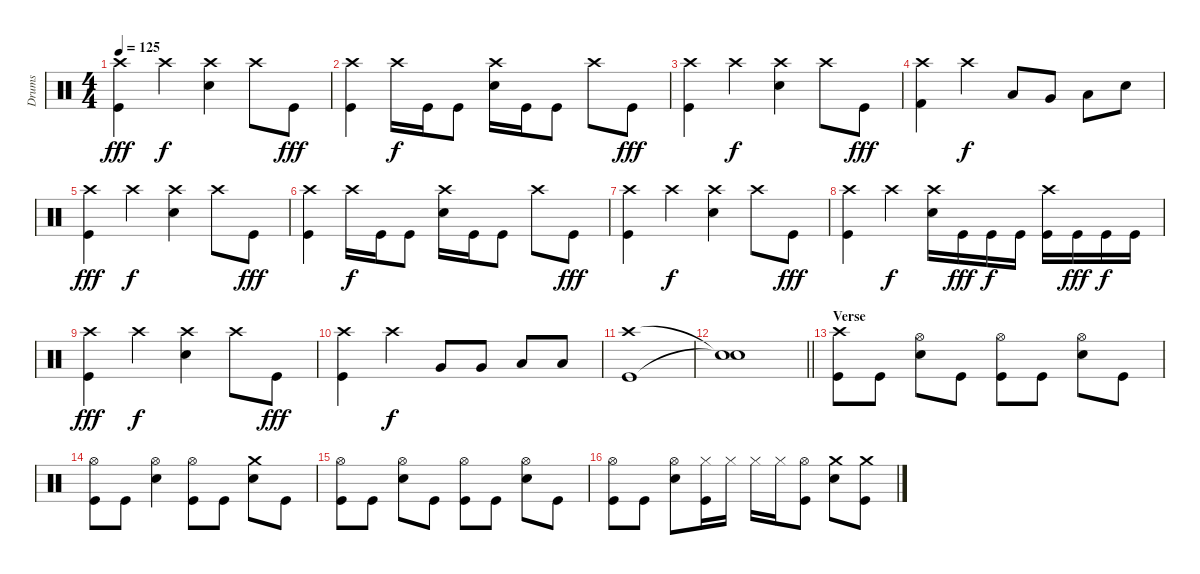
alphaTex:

\track ("Drums" "Drums") {instrument percussion}
\staff {score}
\articulation defaults
\ts (4 4)
\tempo 125
\clef neutral
\ks c
("Crash high (hit)" "Kick (hit)").4{dy fff} "Crash high (hit)".4{dy f} ("Crash high (hit)" "Electric Snare (hit)").4 "Crash high (hit)".8 "Kick (hit)".8{dy fff} |
("Crash high (hit)" "Kick (hit)").4 "Crash high (hit)".16{dy f} "Kick (hit)".16 "Kick (hit)".8 ("Crash high (hit)" "Electric Snare (hit)").16 "Kick (hit)".16 "Kick (hit)".8 "Crash high (hit)".8 "Kick (hit)".8{dy fff} |
("Crash high (hit)" "Kick (hit)").4 "Crash high (hit)".4{dy f} ("Crash high (hit)" "Electric Snare (hit)").4 "Crash high (hit)".8 "Kick (hit)".8{dy fff} |
("Crash high (hit)" "Kick (hit) 2").4 "Crash high (hit)".4{dy f} "Low Tom (hit)".8 "Very Low Tom (hit)".8 "Low Floor Tom (hit)".8 "Snare (hit)".8 |
("Crash high (hit)" "Kick (hit)").4{dy fff} "Crash high (hit)".4{dy f} ("Crash high (hit)" "Electric Snare (hit)").4 "Crash high (hit)".8 "Kick (hit)".8{dy fff} |
("Crash high (hit)" "Kick (hit)").4 "Crash high (hit)".16{dy f} "Kick (hit)".16 "Kick (hit)".8 ("Crash high (hit)" "Electric Snare (hit)").16 "Kick (hit)".16 "Kick (hit)".8 "Crash high (hit)".8 "Kick (hit)".8{dy fff} |
("Crash high (hit)" "Kick (hit)").4 "Crash high (hit)".4{dy f} ("Crash high (hit)" "Electric Snare (hit)").4 "Crash high (hit)".8 "Kick (hit)".8{dy fff} |
("Crash high (hit)" "Kick (hit)").4 "Crash high (hit)".4{dy f} ("Crash high (hit)" "Electric Snare (hit)").16 "Kick (hit)".16{dy fff} "Kick (hit)".16{dy f} "Kick (hit)".16 ("Crash high (hit)" "Kick (hit)").16 "Kick (hit)".16{dy fff} "Kick (hit)".16{dy f} "Kick (hit)".16 |
("Crash high (hit)" "Kick (hit)").4{dy fff} "Crash high (hit)".4{dy f} ("Crash high (hit)" "Electric Snare (hit)").4 "Crash high (hit)".8 "Kick (hit)".8{dy fff} |
("Crash high (hit)" "Kick (hit)").4 "Crash high (hit)".4{dy f} "Very Low Tom (hit)".8 "Very Low Tom (hit)".8 "Low Floor Tom (hit)".8 "Low Floor Tom (hit)".8 |
("Crash high (hit)" "Kick (hit)").1 |
\barLineRight lightlight
("Snare (hit)"{t} "Snare (hit)"{t}).1 |
\section ("" "Verse ")
("Crash high (hit)" "Kick (hit)").8 "Kick (hit)".8 ("Hi-Hat (open)" "Electric Snare (hit)").8 "Kick (hit)".8 ("Hi-Hat (open)" "Kick (hit)").8 "Kick (hit)".8 ("Hi-Hat (open)" "Electric Snare (hit)").8 "Kick (hit)".8 |
("Hi-Hat (open)" "Kick (hit)").8 "Kick (hit)".8 ("Hi-Hat (open)" "Electric Snare (hit)").4 ("Hi-Hat (open)" "Kick (hit)").8 "Kick (hit)".8 ("Crash medium (hit)" "Electric Snare (hit)").8 "Kick (hit)".8 |
("Hi-Hat (open)" "Kick (hit)").8 "Kick (hit)".8 ("Hi-Hat (open)" "Electric Snare (hit)").8 "Kick (hit)".8 ("Hi-Hat (open)" "Kick (hit)").8 "Kick (hit)".8 ("Hi-Hat (open)" "Electric Snare (hit)").8 "Kick (hit)".8 |
("Hi-Hat (open)" "Kick (hit)").8 "Kick (hit)".8 ("Hi-Hat (open)" "Electric Snare (hit)").8 ("Hi-Hat (closed)" "Kick (hit)").16 "Hi-Hat (closed)".16 "Hi-Hat (closed)".16 "Hi-Hat (closed)".16 ("Hi-Hat (open)" "Kick (hit)").8 ("Crash medium (hit)" "Electric Snare (hit)").8 ("Crash medium (hit)" "Kick (hit)").8
